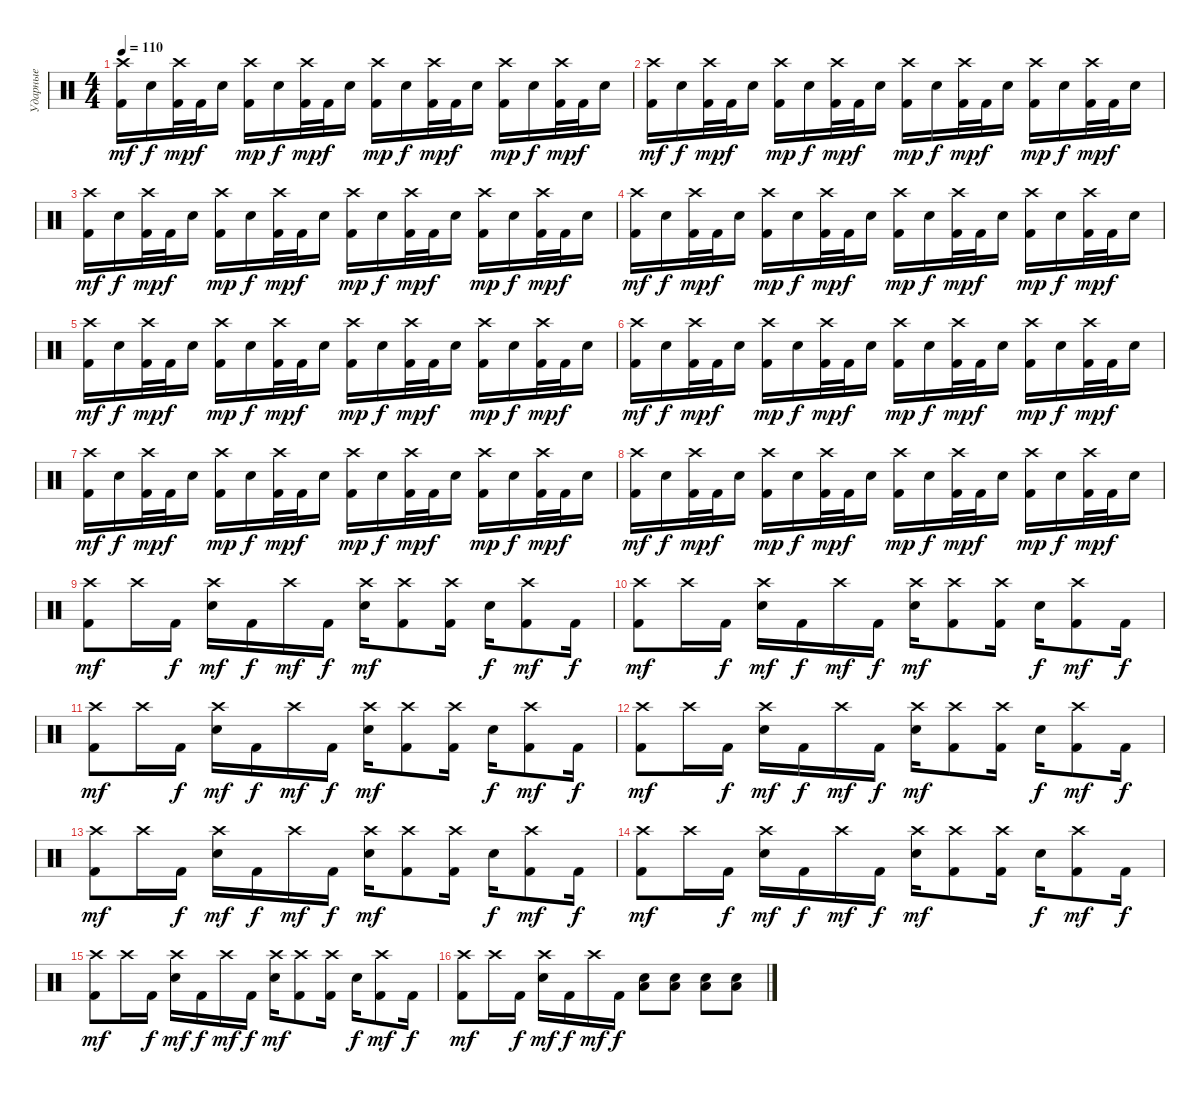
\track ("Ударные" "Ударные") {instrument percussion}
\staff {score}
\articulation defaults
\ts (4 4)
\tempo 110
\clef neutral
\ks c
("Crash high (hit)" "Kick (hit) 2").16{dy mf} "Electric Snare (hit)".16{dy f} ("Crash high (hit)" "Kick (hit) 2").32{dy mp} "Kick (hit) 2".32{dy f} "Electric Snare (hit)".16 ("Crash high (hit)" "Kick (hit) 2").16{dy mp} "Electric Snare (hit)".16{dy f} ("Crash high (hit)" "Kick (hit) 2").32{dy mp} "Kick (hit) 2".32{dy f} "Electric Snare (hit)".16 ("Crash high (hit)" "Kick (hit) 2").16{dy mp} "Electric Snare (hit)".16{dy f} ("Crash high (hit)" "Kick (hit) 2").32{dy mp} "Kick (hit) 2".32{dy f} "Electric Snare (hit)".16 ("Crash high (hit)" "Kick (hit) 2").16{dy mp} "Electric Snare (hit)".16{dy f} ("Crash high (hit)" "Kick (hit) 2").32{dy mp} "Kick (hit) 2".32{dy f} "Electric Snare (hit)".16 |
("Crash high (hit)" "Kick (hit) 2").16{dy mf} "Electric Snare (hit)".16{dy f} ("Crash high (hit)" "Kick (hit) 2").32{dy mp} "Kick (hit) 2".32{dy f} "Electric Snare (hit)".16 ("Crash high (hit)" "Kick (hit) 2").16{dy mp} "Electric Snare (hit)".16{dy f} ("Crash high (hit)" "Kick (hit) 2").32{dy mp} "Kick (hit) 2".32{dy f} "Electric Snare (hit)".16 ("Crash high (hit)" "Kick (hit) 2").16{dy mp} "Electric Snare (hit)".16{dy f} ("Crash high (hit)" "Kick (hit) 2").32{dy mp} "Kick (hit) 2".32{dy f} "Electric Snare (hit)".16 ("Crash high (hit)" "Kick (hit) 2").16{dy mp} "Electric Snare (hit)".16{dy f} ("Crash high (hit)" "Kick (hit) 2").32{dy mp} "Kick (hit) 2".32{dy f} "Electric Snare (hit)".16 |
("Crash high (hit)" "Kick (hit) 2").16{dy mf} "Electric Snare (hit)".16{dy f} ("Crash high (hit)" "Kick (hit) 2").32{dy mp} "Kick (hit) 2".32{dy f} "Electric Snare (hit)".16 ("Crash high (hit)" "Kick (hit) 2").16{dy mp} "Electric Snare (hit)".16{dy f} ("Crash high (hit)" "Kick (hit) 2").32{dy mp} "Kick (hit) 2".32{dy f} "Electric Snare (hit)".16 ("Crash high (hit)" "Kick (hit) 2").16{dy mp} "Electric Snare (hit)".16{dy f} ("Crash high (hit)" "Kick (hit) 2").32{dy mp} "Kick (hit) 2".32{dy f} "Electric Snare (hit)".16 ("Crash high (hit)" "Kick (hit) 2").16{dy mp} "Electric Snare (hit)".16{dy f} ("Crash high (hit)" "Kick (hit) 2").32{dy mp} "Kick (hit) 2".32{dy f} "Electric Snare (hit)".16 |
("Crash high (hit)" "Kick (hit) 2").16{dy mf} "Electric Snare (hit)".16{dy f} ("Crash high (hit)" "Kick (hit) 2").32{dy mp} "Kick (hit) 2".32{dy f} "Electric Snare (hit)".16 ("Crash high (hit)" "Kick (hit) 2").16{dy mp} "Electric Snare (hit)".16{dy f} ("Crash high (hit)" "Kick (hit) 2").32{dy mp} "Kick (hit) 2".32{dy f} "Electric Snare (hit)".16 ("Crash high (hit)" "Kick (hit) 2").16{dy mp} "Electric Snare (hit)".16{dy f} ("Crash high (hit)" "Kick (hit) 2").32{dy mp} "Kick (hit) 2".32{dy f} "Electric Snare (hit)".16 ("Crash high (hit)" "Kick (hit) 2").16{dy mp} "Electric Snare (hit)".16{dy f} ("Crash high (hit)" "Kick (hit) 2").32{dy mp} "Kick (hit) 2".32{dy f} "Electric Snare (hit)".16 |
("Crash high (hit)" "Kick (hit) 2").16{dy mf} "Electric Snare (hit)".16{dy f} ("Crash high (hit)" "Kick (hit) 2").32{dy mp} "Kick (hit) 2".32{dy f} "Electric Snare (hit)".16 ("Crash high (hit)" "Kick (hit) 2").16{dy mp} "Electric Snare (hit)".16{dy f} ("Crash high (hit)" "Kick (hit) 2").32{dy mp} "Kick (hit) 2".32{dy f} "Electric Snare (hit)".16 ("Crash high (hit)" "Kick (hit) 2").16{dy mp} "Electric Snare (hit)".16{dy f} ("Crash high (hit)" "Kick (hit) 2").32{dy mp} "Kick (hit) 2".32{dy f} "Electric Snare (hit)".16 ("Crash high (hit)" "Kick (hit) 2").16{dy mp} "Electric Snare (hit)".16{dy f} ("Crash high (hit)" "Kick (hit) 2").32{dy mp} "Kick (hit) 2".32{dy f} "Electric Snare (hit)".16 |
("Crash high (hit)" "Kick (hit) 2").16{dy mf} "Electric Snare (hit)".16{dy f} ("Crash high (hit)" "Kick (hit) 2").32{dy mp} "Kick (hit) 2".32{dy f} "Electric Snare (hit)".16 ("Crash high (hit)" "Kick (hit) 2").16{dy mp} "Electric Snare (hit)".16{dy f} ("Crash high (hit)" "Kick (hit) 2").32{dy mp} "Kick (hit) 2".32{dy f} "Electric Snare (hit)".16 ("Crash high (hit)" "Kick (hit) 2").16{dy mp} "Electric Snare (hit)".16{dy f} ("Crash high (hit)" "Kick (hit) 2").32{dy mp} "Kick (hit) 2".32{dy f} "Electric Snare (hit)".16 ("Crash high (hit)" "Kick (hit) 2").16{dy mp} "Electric Snare (hit)".16{dy f} ("Crash high (hit)" "Kick (hit) 2").32{dy mp} "Kick (hit) 2".32{dy f} "Electric Snare (hit)".16 |
("Crash high (hit)" "Kick (hit) 2").16{dy mf} "Electric Snare (hit)".16{dy f} ("Crash high (hit)" "Kick (hit) 2").32{dy mp} "Kick (hit) 2".32{dy f} "Electric Snare (hit)".16 ("Crash high (hit)" "Kick (hit) 2").16{dy mp} "Electric Snare (hit)".16{dy f} ("Crash high (hit)" "Kick (hit) 2").32{dy mp} "Kick (hit) 2".32{dy f} "Electric Snare (hit)".16 ("Crash high (hit)" "Kick (hit) 2").16{dy mp} "Electric Snare (hit)".16{dy f} ("Crash high (hit)" "Kick (hit) 2").32{dy mp} "Kick (hit) 2".32{dy f} "Electric Snare (hit)".16 ("Crash high (hit)" "Kick (hit) 2").16{dy mp} "Electric Snare (hit)".16{dy f} ("Crash high (hit)" "Kick (hit) 2").32{dy mp} "Kick (hit) 2".32{dy f} "Electric Snare (hit)".16 |
("Crash high (hit)" "Kick (hit) 2").16{dy mf} "Electric Snare (hit)".16{dy f} ("Crash high (hit)" "Kick (hit) 2").32{dy mp} "Kick (hit) 2".32{dy f} "Electric Snare (hit)".16 ("Crash high (hit)" "Kick (hit) 2").16{dy mp} "Electric Snare (hit)".16{dy f} ("Crash high (hit)" "Kick (hit) 2").32{dy mp} "Kick (hit) 2".32{dy f} "Electric Snare (hit)".16 ("Crash high (hit)" "Kick (hit) 2").16{dy mp} "Electric Snare (hit)".16{dy f} ("Crash high (hit)" "Kick (hit) 2").32{dy mp} "Kick (hit) 2".32{dy f} "Electric Snare (hit)".16 ("Crash high (hit)" "Kick (hit) 2").16{dy mp} "Electric Snare (hit)".16{dy f} ("Crash high (hit)" "Kick (hit) 2").32{dy mp} "Kick (hit) 2".32{dy f} "Electric Snare (hit)".16 |
("Crash high (hit)" "Kick (hit) 2").8{dy mf} "Crash high (hit)".16 "Kick (hit) 2".16{dy f} ("Crash high (hit)" "Electric Snare (hit)").16{dy mf} "Kick (hit) 2".16{dy f} "Crash high (hit)".16{dy mf} "Kick (hit) 2".16{dy f} ("Crash high (hit)" "Electric Snare (hit)").16{dy mf} ("Crash high (hit)" "Kick (hit) 2").8 ("Crash high (hit)" "Kick (hit) 2").16 "Electric Snare (hit)".16{dy f} ("Crash high (hit)" "Kick (hit) 2").8{dy mf} "Kick (hit) 2".16{dy f} |
("Crash high (hit)" "Kick (hit) 2").8{dy mf} "Crash high (hit)".16 "Kick (hit) 2".16{dy f} ("Crash high (hit)" "Electric Snare (hit)").16{dy mf} "Kick (hit) 2".16{dy f} "Crash high (hit)".16{dy mf} "Kick (hit) 2".16{dy f} ("Crash high (hit)" "Electric Snare (hit)").16{dy mf} ("Crash high (hit)" "Kick (hit) 2").8 ("Crash high (hit)" "Kick (hit) 2").16 "Electric Snare (hit)".16{dy f} ("Crash high (hit)" "Kick (hit) 2").8{dy mf} "Kick (hit) 2".16{dy f} |
("Crash high (hit)" "Kick (hit) 2").8{dy mf} "Crash high (hit)".16 "Kick (hit) 2".16{dy f} ("Crash high (hit)" "Electric Snare (hit)").16{dy mf} "Kick (hit) 2".16{dy f} "Crash high (hit)".16{dy mf} "Kick (hit) 2".16{dy f} ("Crash high (hit)" "Electric Snare (hit)").16{dy mf} ("Crash high (hit)" "Kick (hit) 2").8 ("Crash high (hit)" "Kick (hit) 2").16 "Electric Snare (hit)".16{dy f} ("Crash high (hit)" "Kick (hit) 2").8{dy mf} "Kick (hit) 2".16{dy f} |
("Crash high (hit)" "Kick (hit) 2").8{dy mf} "Crash high (hit)".16 "Kick (hit) 2".16{dy f} ("Crash high (hit)" "Electric Snare (hit)").16{dy mf} "Kick (hit) 2".16{dy f} "Crash high (hit)".16{dy mf} "Kick (hit) 2".16{dy f} ("Crash high (hit)" "Electric Snare (hit)").16{dy mf} ("Crash high (hit)" "Kick (hit) 2").8 ("Crash high (hit)" "Kick (hit) 2").16 "Electric Snare (hit)".16{dy f} ("Crash high (hit)" "Kick (hit) 2").8{dy mf} "Kick (hit) 2".16{dy f} |
("Crash high (hit)" "Kick (hit) 2").8{dy mf} "Crash high (hit)".16 "Kick (hit) 2".16{dy f} ("Crash high (hit)" "Electric Snare (hit)").16{dy mf} "Kick (hit) 2".16{dy f} "Crash high (hit)".16{dy mf} "Kick (hit) 2".16{dy f} ("Crash high (hit)" "Electric Snare (hit)").16{dy mf} ("Crash high (hit)" "Kick (hit) 2").8 ("Crash high (hit)" "Kick (hit) 2").16 "Electric Snare (hit)".16{dy f} ("Crash high (hit)" "Kick (hit) 2").8{dy mf} "Kick (hit) 2".16{dy f} |
("Crash high (hit)" "Kick (hit) 2").8{dy mf} "Crash high (hit)".16 "Kick (hit) 2".16{dy f} ("Crash high (hit)" "Electric Snare (hit)").16{dy mf} "Kick (hit) 2".16{dy f} "Crash high (hit)".16{dy mf} "Kick (hit) 2".16{dy f} ("Crash high (hit)" "Electric Snare (hit)").16{dy mf} ("Crash high (hit)" "Kick (hit) 2").8 ("Crash high (hit)" "Kick (hit) 2").16 "Electric Snare (hit)".16{dy f} ("Crash high (hit)" "Kick (hit) 2").8{dy mf} "Kick (hit) 2".16{dy f} |
("Crash high (hit)" "Kick (hit) 2").8{dy mf} "Crash high (hit)".16 "Kick (hit) 2".16{dy f} ("Crash high (hit)" "Electric Snare (hit)").16{dy mf} "Kick (hit) 2".16{dy f} "Crash high (hit)".16{dy mf} "Kick (hit) 2".16{dy f} ("Crash high (hit)" "Electric Snare (hit)").16{dy mf} ("Crash high (hit)" "Kick (hit) 2").8 ("Crash high (hit)" "Kick (hit) 2").16 "Electric Snare (hit)".16{dy f} ("Crash high (hit)" "Kick (hit) 2").8{dy mf} "Kick (hit) 2".16{dy f} |
("Crash high (hit)" "Kick (hit) 2").8{dy mf} "Crash high (hit)".16 "Kick (hit) 2".16{dy f} ("Crash high (hit)" "Electric Snare (hit)").16{dy mf} "Kick (hit) 2".16{dy f} "Crash high (hit)".16{dy mf} "Kick (hit) 2".16{dy f} ("Low Tom (hit)" "Electric Snare (hit)").8 ("Low Tom (hit)" "Electric Snare (hit)").8 ("Low Tom (hit)" "Electric Snare (hit)").8 ("Low Tom (hit)" "Electric Snare (hit)").8
